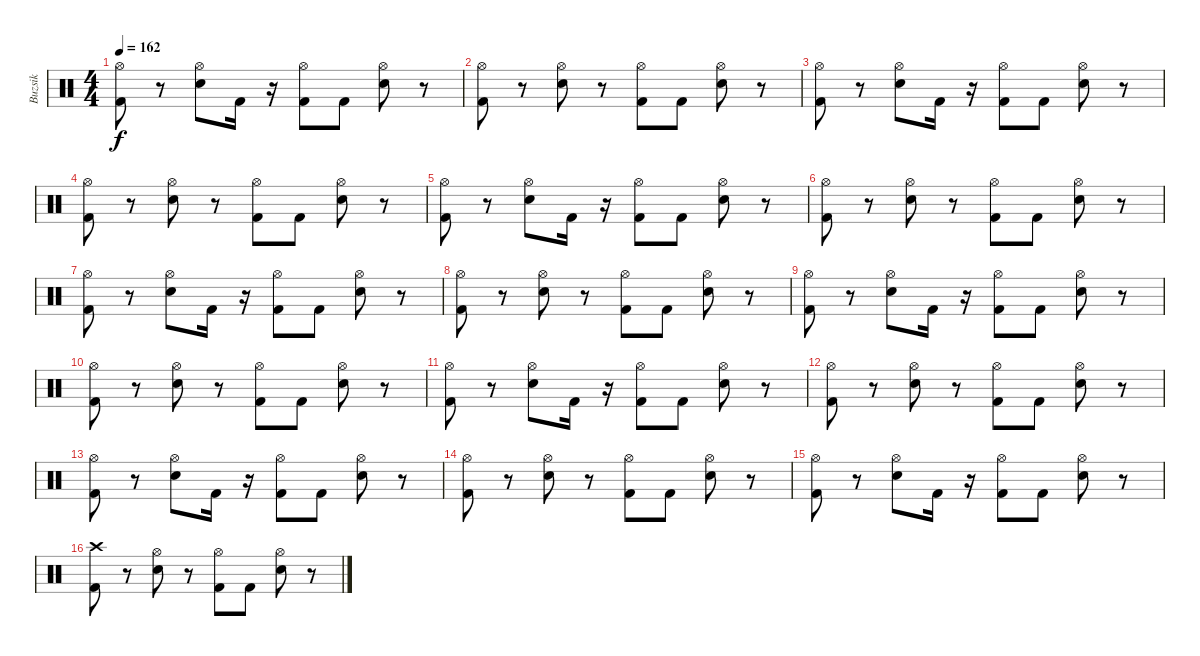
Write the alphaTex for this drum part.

\track ("Buzsik" "Buzsik") {instrument percussion}
\staff {score}
\articulation defaults
\ts (4 4)
\tempo 162
\clef neutral
\ks c
("Hi-Hat (open)" "Kick (hit) 2").8{dy f} r.8 ("Hi-Hat (open)" "Electric Snare (hit)").8 "Kick (hit) 2".16 r.16 ("Hi-Hat (open)" "Kick (hit) 2").8 "Kick (hit) 2".8 ("Hi-Hat (open)" "Electric Snare (hit)").8 r.8 |
("Hi-Hat (open)" "Kick (hit) 2").8 r.8 ("Hi-Hat (open)" "Electric Snare (hit)").8 r.8 ("Hi-Hat (open)" "Kick (hit) 2").8 "Kick (hit) 2".8 ("Hi-Hat (open)" "Electric Snare (hit)").8 r.8 |
("Hi-Hat (open)" "Kick (hit) 2").8 r.8 ("Hi-Hat (open)" "Electric Snare (hit)").8 "Kick (hit) 2".16 r.16 ("Hi-Hat (open)" "Kick (hit) 2").8 "Kick (hit) 2".8 ("Hi-Hat (open)" "Electric Snare (hit)").8 r.8 |
("Hi-Hat (open)" "Kick (hit) 2").8 r.8 ("Hi-Hat (open)" "Electric Snare (hit)").8 r.8 ("Hi-Hat (open)" "Kick (hit) 2").8 "Kick (hit) 2".8 ("Hi-Hat (open)" "Electric Snare (hit)").8 r.8 |
("Hi-Hat (open)" "Kick (hit) 2").8 r.8 ("Hi-Hat (open)" "Electric Snare (hit)").8 "Kick (hit) 2".16 r.16 ("Hi-Hat (open)" "Kick (hit) 2").8 "Kick (hit) 2".8 ("Hi-Hat (open)" "Electric Snare (hit)").8 r.8 |
("Hi-Hat (open)" "Kick (hit) 2").8 r.8 ("Hi-Hat (open)" "Electric Snare (hit)").8 r.8 ("Hi-Hat (open)" "Kick (hit) 2").8 "Kick (hit) 2".8 ("Hi-Hat (open)" "Electric Snare (hit)").8 r.8 |
("Hi-Hat (open)" "Kick (hit) 2").8 r.8 ("Hi-Hat (open)" "Electric Snare (hit)").8 "Kick (hit) 2".16 r.16 ("Hi-Hat (open)" "Kick (hit) 2").8 "Kick (hit) 2".8 ("Hi-Hat (open)" "Electric Snare (hit)").8 r.8 |
("Hi-Hat (open)" "Kick (hit) 2").8 r.8 ("Hi-Hat (open)" "Electric Snare (hit)").8 r.8 ("Hi-Hat (open)" "Kick (hit) 2").8 "Kick (hit) 2".8 ("Hi-Hat (open)" "Electric Snare (hit)").8 r.8 |
("Hi-Hat (open)" "Kick (hit) 2").8 r.8 ("Hi-Hat (open)" "Electric Snare (hit)").8 "Kick (hit) 2".16 r.16 ("Hi-Hat (open)" "Kick (hit) 2").8 "Kick (hit) 2".8 ("Hi-Hat (open)" "Electric Snare (hit)").8 r.8 |
("Hi-Hat (open)" "Kick (hit) 2").8 r.8 ("Hi-Hat (open)" "Electric Snare (hit)").8 r.8 ("Hi-Hat (open)" "Kick (hit) 2").8 "Kick (hit) 2".8 ("Hi-Hat (open)" "Electric Snare (hit)").8 r.8 |
("Hi-Hat (open)" "Kick (hit) 2").8 r.8 ("Hi-Hat (open)" "Electric Snare (hit)").8 "Kick (hit) 2".16 r.16 ("Hi-Hat (open)" "Kick (hit) 2").8 "Kick (hit) 2".8 ("Hi-Hat (open)" "Electric Snare (hit)").8 r.8 |
("Hi-Hat (open)" "Kick (hit) 2").8 r.8 ("Hi-Hat (open)" "Electric Snare (hit)").8 r.8 ("Hi-Hat (open)" "Kick (hit) 2").8 "Kick (hit) 2".8 ("Hi-Hat (open)" "Electric Snare (hit)").8 r.8 |
("Hi-Hat (open)" "Kick (hit) 2").8 r.8 ("Hi-Hat (open)" "Electric Snare (hit)").8 "Kick (hit) 2".16 r.16 ("Hi-Hat (open)" "Kick (hit) 2").8 "Kick (hit) 2".8 ("Hi-Hat (open)" "Electric Snare (hit)").8 r.8 |
("Hi-Hat (open)" "Kick (hit) 2").8 r.8 ("Hi-Hat (open)" "Electric Snare (hit)").8 r.8 ("Hi-Hat (open)" "Kick (hit) 2").8 "Kick (hit) 2".8 ("Hi-Hat (open)" "Electric Snare (hit)").8 r.8 |
("Hi-Hat (open)" "Kick (hit) 2").8 r.8 ("Hi-Hat (open)" "Electric Snare (hit)").8 "Kick (hit) 2".16 r.16 ("Hi-Hat (open)" "Kick (hit) 2").8 "Kick (hit) 2".8 ("Hi-Hat (open)" "Electric Snare (hit)").8 r.8 |
("Crash high (hit)" "Kick (hit) 2").8 r.8 ("Hi-Hat (open)" "Electric Snare (hit)").8 r.8 ("Hi-Hat (open)" "Kick (hit) 2").8 "Kick (hit) 2".8 ("Hi-Hat (open)" "Electric Snare (hit)").8 r.8
